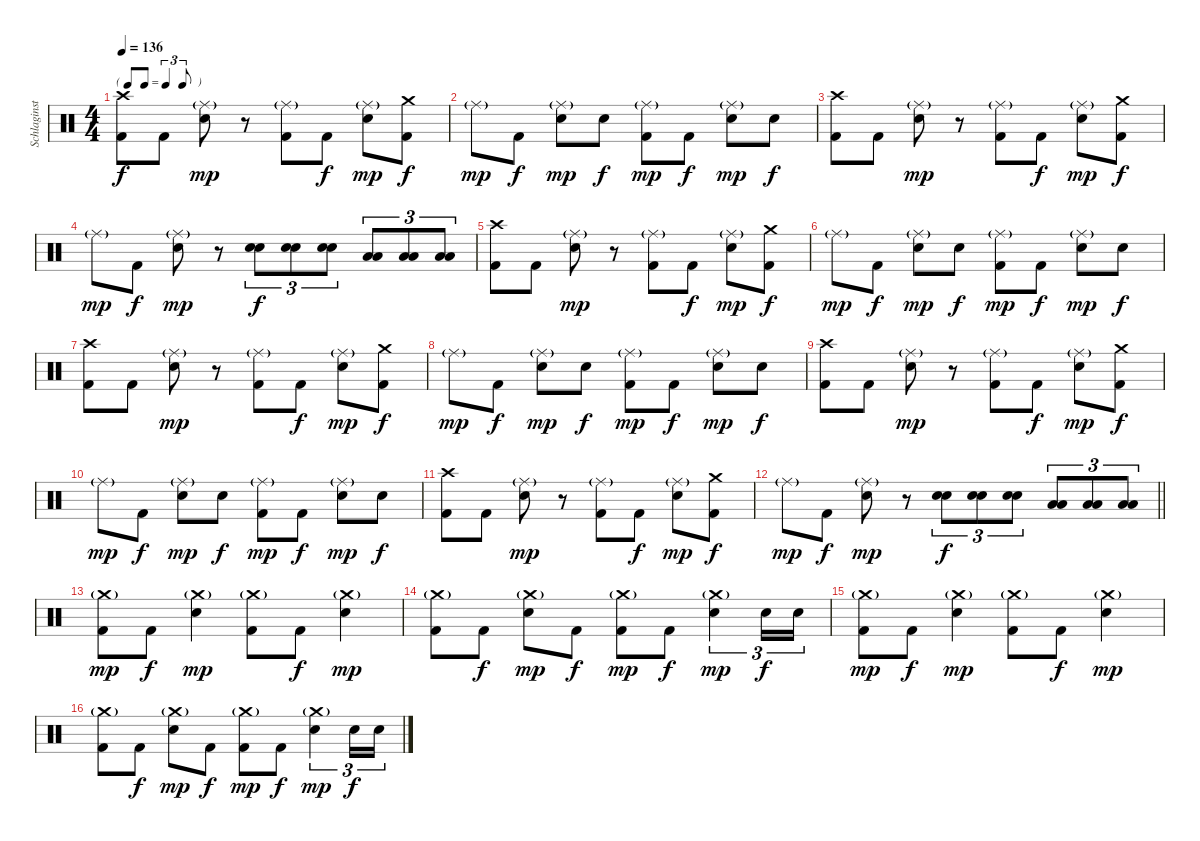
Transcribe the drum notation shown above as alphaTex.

\track ("Schlaginstrumente - Auswahl" "Schlaginst") {instrument percussion}
\staff {score}
\articulation defaults
\ts (4 4)
\tf triplet8th
\tempo 136
\clef neutral
\ks c
("Crash high (hit)" "Kick (hit) 2").8{dy f} "Kick (hit) 2".8 ("Ride (middle)"{g} "Snare (hit) 2").8{dy mp} r.8 ("Ride (middle)"{g} "Kick (hit) 2").8 "Kick (hit) 2".8{dy f} ("Ride (middle)"{g} "Snare (hit) 2").8{dy mp} ("Crash medium (hit)" "Kick (hit) 2").8{dy f} |
"Ride (middle)"{g}.8{dy mp} "Kick (hit) 2".8{dy f} ("Ride (middle)"{g} "Snare (hit) 2").8{dy mp} "Snare (hit) 2".8{dy f} ("Ride (middle)"{g} "Kick (hit) 2").8{dy mp} "Kick (hit) 2".8{dy f} ("Ride (middle)"{g} "Snare (hit) 2").8{dy mp} "Snare (hit) 2".8{dy f} |
("Crash high (hit)" "Kick (hit) 2").8 "Kick (hit) 2".8 ("Ride (middle)"{g} "Snare (hit) 2").8{dy mp} r.8 ("Ride (middle)"{g} "Kick (hit) 2").8 "Kick (hit) 2".8{dy f} ("Ride (middle)"{g} "Snare (hit) 2").8{dy mp} ("Crash medium (hit)" "Kick (hit) 2").8{dy f} |
"Ride (middle)"{g}.8{dy mp} "Kick (hit) 2".8{dy f} ("Ride (middle)"{g} "Snare (hit) 2").8{dy mp} r.8 ("Snare (hit) 2" "Snare (hit) 2").8{tu (3 2) bd 240 dy f} ("Snare (hit) 2" "Snare (hit) 2").8{tu (3 2) bd 240} ("Snare (hit) 2" "Snare (hit) 2").8{tu (3 2) bd 240} ("Low Tom (hit)" "Low Tom (hit)").8{tu (3 2) bd 240} ("Low Tom (hit)" "Low Tom (hit)").8{tu (3 2) bd 240} ("Low Tom (hit)" "Low Tom (hit)").8{tu (3 2) bd 240} |
("Crash high (hit)" "Kick (hit) 2").8 "Kick (hit) 2".8 ("Ride (middle)"{g} "Snare (hit) 2").8{dy mp} r.8 ("Ride (middle)"{g} "Kick (hit) 2").8 "Kick (hit) 2".8{dy f} ("Ride (middle)"{g} "Snare (hit) 2").8{dy mp} ("Crash medium (hit)" "Kick (hit) 2").8{dy f} |
"Ride (middle)"{g}.8{dy mp} "Kick (hit) 2".8{dy f} ("Ride (middle)"{g} "Snare (hit) 2").8{dy mp} "Snare (hit) 2".8{dy f} ("Ride (middle)"{g} "Kick (hit) 2").8{dy mp} "Kick (hit) 2".8{dy f} ("Ride (middle)"{g} "Snare (hit) 2").8{dy mp} "Snare (hit) 2".8{dy f} |
("Crash high (hit)" "Kick (hit) 2").8 "Kick (hit) 2".8 ("Ride (middle)"{g} "Snare (hit) 2").8{dy mp} r.8 ("Ride (middle)"{g} "Kick (hit) 2").8 "Kick (hit) 2".8{dy f} ("Ride (middle)"{g} "Snare (hit) 2").8{dy mp} ("Crash medium (hit)" "Kick (hit) 2").8{dy f} |
"Ride (middle)"{g}.8{dy mp} "Kick (hit) 2".8{dy f} ("Ride (middle)"{g} "Snare (hit) 2").8{dy mp} "Snare (hit) 2".8{dy f} ("Ride (middle)"{g} "Kick (hit) 2").8{dy mp} "Kick (hit) 2".8{dy f} ("Ride (middle)"{g} "Snare (hit) 2").8{dy mp} "Snare (hit) 2".8{dy f} |
("Crash high (hit)" "Kick (hit) 2").8 "Kick (hit) 2".8 ("Ride (middle)"{g} "Snare (hit) 2").8{dy mp} r.8 ("Ride (middle)"{g} "Kick (hit) 2").8 "Kick (hit) 2".8{dy f} ("Ride (middle)"{g} "Snare (hit) 2").8{dy mp} ("Crash medium (hit)" "Kick (hit) 2").8{dy f} |
"Ride (middle)"{g}.8{dy mp} "Kick (hit) 2".8{dy f} ("Ride (middle)"{g} "Snare (hit) 2").8{dy mp} "Snare (hit) 2".8{dy f} ("Ride (middle)"{g} "Kick (hit) 2").8{dy mp} "Kick (hit) 2".8{dy f} ("Ride (middle)"{g} "Snare (hit) 2").8{dy mp} "Snare (hit) 2".8{dy f} |
("Crash high (hit)" "Kick (hit) 2").8 "Kick (hit) 2".8 ("Ride (middle)"{g} "Snare (hit) 2").8{dy mp} r.8 ("Ride (middle)"{g} "Kick (hit) 2").8 "Kick (hit) 2".8{dy f} ("Ride (middle)"{g} "Snare (hit) 2").8{dy mp} ("Crash medium (hit)" "Kick (hit) 2").8{dy f} |
\barLineRight lightlight "Ride (middle)"{g}.8{dy mp} "Kick (hit) 2".8{dy f}
("Ride (middle)"{g} "Snare (hit) 2").8{dy mp} r.8 ("Snare (hit) 2" "Snare (hit) 2").8{tu (3 2) bd 240 dy f} ("Snare (hit) 2" "Snare (hit) 2").8{tu (3 2) bd 240} ("Snare (hit) 2" "Snare (hit) 2").8{tu (3 2) bd 240} ("Low Tom (hit)" "Low Tom (hit)").8{tu (3 2) bd 240} ("Low Tom (hit)" "Low Tom (hit)").8{tu (3 2) bd 240} ("Low Tom (hit)" "Low Tom (hit)").8{tu (3 2) bd 240} |
("Crash medium (hit)"{g} "Kick (hit) 2").8{dy mp} "Kick (hit) 2".8{dy f} ("Crash medium (hit)"{g} "Snare (hit) 2").4{dy mp} ("Crash medium (hit)"{g} "Kick (hit) 2").8 "Kick (hit) 2".8{dy f} ("Crash medium (hit)"{g} "Snare (hit) 2").4{dy mp} |
("Crash medium (hit)"{g} "Kick (hit) 2").8 "Kick (hit) 2".8{dy f} ("Crash medium (hit)"{g} "Snare (hit) 2").8{dy mp} "Kick (hit) 2".8{dy f} ("Crash medium (hit)"{g} "Kick (hit) 2").8{dy mp} "Kick (hit) 2".8{dy f} ("Crash medium (hit)"{g} "Snare (hit) 2").4{tu (3 2) dy mp} "Snare (hit) 2".16{tu (3 2) dy f} "Snare (hit) 2".16{tu (3 2)} |
("Crash medium (hit)"{g} "Kick (hit) 2").8{dy mp} "Kick (hit) 2".8{dy f} ("Crash medium (hit)"{g} "Snare (hit) 2").4{dy mp} ("Crash medium (hit)"{g} "Kick (hit) 2").8 "Kick (hit) 2".8{dy f} ("Crash medium (hit)"{g} "Snare (hit) 2").4{dy mp} |
("Crash medium (hit)"{g} "Kick (hit) 2").8 "Kick (hit) 2".8{dy f} ("Crash medium (hit)"{g} "Snare (hit) 2").8{dy mp} "Kick (hit) 2".8{dy f} ("Crash medium (hit)"{g} "Kick (hit) 2").8{dy mp} "Kick (hit) 2".8{dy f} ("Crash medium (hit)"{g} "Snare (hit) 2").4{tu (3 2) dy mp} "Snare (hit) 2".16{tu (3 2) dy f} "Snare (hit) 2".16{tu (3 2)}
